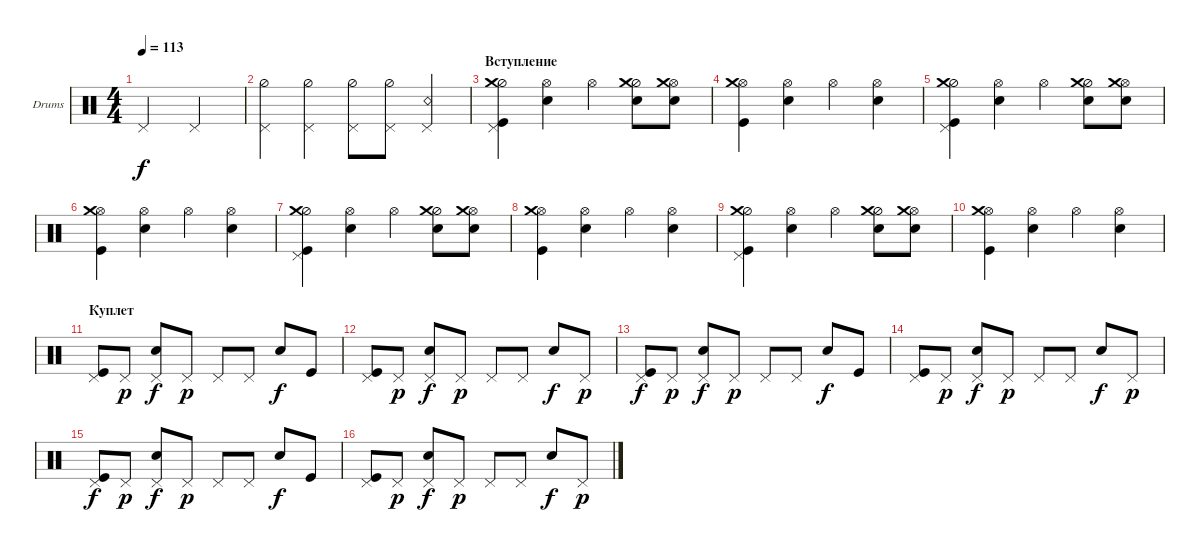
\defaultSystemsLayout 4
\bracketExtendMode groupsimilarinstruments
\firstSystemTrackNameOrientation horizontal
\otherSystemsTrackNameOrientation horizontal
\track ("Е. Кулаков" "Drums") {instrument percussion}
\staff {score}
\articulation defaults
\ts (4 4)
\tempo 113
\clef neutral
\scale
0.474178
\ks c "Pedal Hi-Hat (hit)".2{dy f} "Pedal Hi-Hat (hit)".2
|
\scale
0.262911 ("Pedal Hi-Hat (hit)" "Hi-Hat (half)").4 ("Pedal Hi-Hat (hit)" "Hi-Hat (half)").4 ("Pedal Hi-Hat (hit)" "Hi-Hat (half)").8 ("Pedal Hi-Hat (hit)" "Hi-Hat (half)").8 ("Pedal Hi-Hat (hit)" "Snare (rim shot)").4 |
\section ("" "Вступление")
\scale
0.262911 ("Pedal Hi-Hat (hit)" "Kick (hit)" "Hi-Hat (half)" "Crash medium (hit)").4 ("Snare (hit) 2" "Hi-Hat (open)").4 "Hi-Hat (open)".4 ("Snare (hit) 2" "Hi-Hat (half)" "Crash medium (hit)").8 ("Hi-Hat (open)" "Snare (hit) 2" "Crash medium (hit)").8 |
("Hi-Hat (open)" "Kick (hit)" "Crash medium (hit)").4 ("Hi-Hat (open)" "Snare (hit) 2").4 "Hi-Hat (open)".4 ("Snare (hit) 2" "Hi-Hat (open)").4 |
("Pedal Hi-Hat (hit)" "Kick (hit)" "Hi-Hat (half)" "Crash medium (hit)").4 ("Snare (hit) 2" "Hi-Hat (open)").4 "Hi-Hat (open)".4 ("Snare (hit) 2" "Hi-Hat (half)" "Crash medium (hit)").8 ("Hi-Hat (open)" "Snare (hit) 2" "Crash medium (hit)").8 |
("Hi-Hat (open)" "Kick (hit)" "Crash medium (hit)").4 ("Hi-Hat (open)" "Snare (hit) 2").4 "Hi-Hat (open)".4 ("Snare (hit) 2" "Hi-Hat (open)").4 |
("Pedal Hi-Hat (hit)" "Kick (hit)" "Hi-Hat (half)" "Crash medium (hit)").4 ("Snare (hit) 2" "Hi-Hat (open)").4 "Hi-Hat (open)".4 ("Snare (hit) 2" "Hi-Hat (half)" "Crash medium (hit)").8 ("Hi-Hat (open)" "Snare (hit) 2" "Crash medium (hit)").8 |
("Hi-Hat (open)" "Kick (hit)" "Crash medium (hit)").4 ("Hi-Hat (open)" "Snare (hit) 2").4 "Hi-Hat (open)".4 ("Snare (hit) 2" "Hi-Hat (open)").4 |
("Pedal Hi-Hat (hit)" "Kick (hit)" "Hi-Hat (half)" "Crash medium (hit)").4 ("Snare (hit) 2" "Hi-Hat (open)").4 "Hi-Hat (open)".4 ("Snare (hit) 2" "Hi-Hat (half)" "Crash medium (hit)").8 ("Hi-Hat (open)" "Snare (hit) 2" "Crash medium (hit)").8 |
("Hi-Hat (open)" "Kick (hit)" "Crash medium (hit)").4 ("Hi-Hat (open)" "Snare (hit) 2").4 "Hi-Hat (open)".4 ("Snare (hit) 2" "Hi-Hat (open)").4 |
\section ("" "Куплет")
("Kick (hit)" "Pedal Hi-Hat (hit)").8 "Pedal Hi-Hat (hit)".8{dy p} ("Snare (hit) 2" "Pedal Hi-Hat (hit)").8{dy f} "Pedal Hi-Hat (hit)".8{dy p} "Pedal Hi-Hat (hit)".8 "Pedal Hi-Hat (hit)".8 "Snare (hit) 2".8{dy f} "Kick (hit)".8 |
("Kick (hit)" "Pedal Hi-Hat (hit)").8 "Pedal Hi-Hat (hit)".8{dy p} ("Snare (hit) 2" "Pedal Hi-Hat (hit)").8{dy f} "Pedal Hi-Hat (hit)".8{dy p} "Pedal Hi-Hat (hit)".8 "Pedal Hi-Hat (hit)".8 "Snare (hit) 2".8{dy f} "Pedal Hi-Hat (hit)".8{dy p} |
("Kick (hit)" "Pedal Hi-Hat (hit)").8{dy f} "Pedal Hi-Hat (hit)".8{dy p} ("Snare (hit) 2" "Pedal Hi-Hat (hit)").8{dy f} "Pedal Hi-Hat (hit)".8{dy p} "Pedal Hi-Hat (hit)".8 "Pedal Hi-Hat (hit)".8 "Snare (hit) 2".8{dy f} "Kick (hit)".8 |
("Kick (hit)" "Pedal Hi-Hat (hit)").8 "Pedal Hi-Hat (hit)".8{dy p} ("Snare (hit) 2" "Pedal Hi-Hat (hit)").8{dy f} "Pedal Hi-Hat (hit)".8{dy p} "Pedal Hi-Hat (hit)".8 "Pedal Hi-Hat (hit)".8 "Snare (hit) 2".8{dy f} "Pedal Hi-Hat (hit)".8{dy p} |
("Kick (hit)" "Pedal Hi-Hat (hit)").8{dy f} "Pedal Hi-Hat (hit)".8{dy p} ("Snare (hit) 2" "Pedal Hi-Hat (hit)").8{dy f} "Pedal Hi-Hat (hit)".8{dy p} "Pedal Hi-Hat (hit)".8 "Pedal Hi-Hat (hit)".8 "Snare (hit) 2".8{dy f} "Kick (hit)".8 |
("Kick (hit)" "Pedal Hi-Hat (hit)").8 "Pedal Hi-Hat (hit)".8{dy p} ("Snare (hit) 2" "Pedal Hi-Hat (hit)").8{dy f} "Pedal Hi-Hat (hit)".8{dy p} "Pedal Hi-Hat (hit)".8 "Pedal Hi-Hat (hit)".8 "Snare (hit) 2".8{dy f} "Pedal Hi-Hat (hit)".8{dy p}
